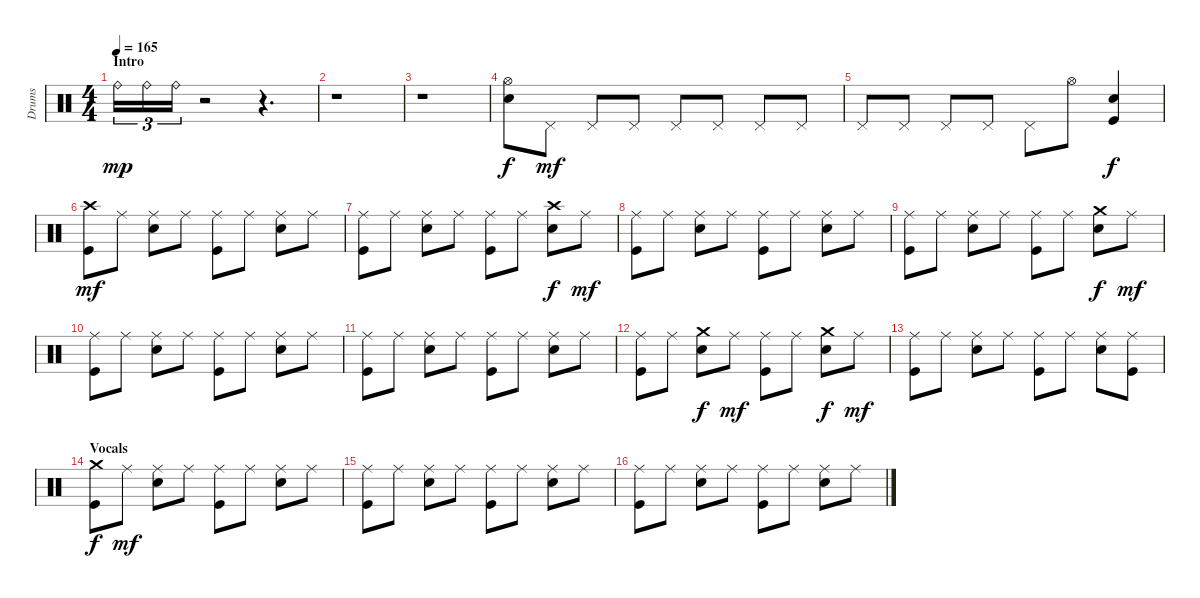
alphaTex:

\track ("Drums" "Drums") {instrument percussion}
\staff {score}
\articulation defaults
\ts (4 4)
\section ("" "Intro")
\tempo 165
\clef neutral
\ks c "Ride (bell)".16{tu (3 2) dy mp} "Ride (bell)".16{tu (3 2)} "Ride (bell)".16{tu (3 2)}
r.2 r.4{d} |
r.1 |
r.1 |
("Hi-Hat (open)" "Electric Snare (hit)").8{dy f} "Pedal Hi-Hat (hit)".8{dy mf} "Pedal Hi-Hat (hit)".8 "Pedal Hi-Hat (hit)".8 "Pedal Hi-Hat (hit)".8 "Pedal Hi-Hat (hit)".8 "Pedal Hi-Hat (hit)".8 "Pedal Hi-Hat (hit)".8 |
"Pedal Hi-Hat (hit)".8 "Pedal Hi-Hat (hit)".8 "Pedal Hi-Hat (hit)".8 "Pedal Hi-Hat (hit)".8 "Pedal Hi-Hat (hit)".8 "Hi-Hat (open)".8 ("Kick (hit)" "Electric Snare (hit)").4{dy f} |
("Crash high (hit)" "Kick (hit)").8{dy mf} "Ride (middle)".8 ("Ride (middle)" "Electric Snare (hit)").8 "Ride (middle)".8 ("Ride (middle)" "Kick (hit)").8 "Ride (middle)".8 ("Ride (middle)" "Electric Snare (hit)").8 "Ride (middle)".8 |
("Ride (middle)" "Kick (hit)").8 "Ride (middle)".8 ("Ride (middle)" "Electric Snare (hit)").8 "Ride (middle)".8 ("Ride (middle)" "Kick (hit)").8 "Ride (middle)".8 ("Crash high (hit)" "Electric Snare (hit)").8{dy f} "Ride (middle)".8{dy mf} |
("Ride (middle)" "Kick (hit)").8 "Ride (middle)".8 ("Ride (middle)" "Electric Snare (hit)").8 "Ride (middle)".8 ("Ride (middle)" "Kick (hit)").8 "Ride (middle)".8 ("Ride (middle)" "Electric Snare (hit)").8 "Ride (middle)".8 |
("Ride (middle)" "Kick (hit)").8 "Ride (middle)".8 ("Ride (middle)" "Electric Snare (hit)").8 "Ride (middle)".8 ("Ride (middle)" "Kick (hit)").8 "Ride (middle)".8 ("Crash medium (hit)" "Electric Snare (hit)").8{dy f} "Ride (middle)".8{dy mf} |
("Ride (middle)" "Kick (hit)").8 "Ride (middle)".8 ("Ride (middle)" "Electric Snare (hit)").8 "Ride (middle)".8 ("Ride (middle)" "Kick (hit)").8 "Ride (middle)".8 ("Ride (middle)" "Electric Snare (hit)").8 "Ride (middle)".8 |
("Ride (middle)" "Kick (hit)").8 "Ride (middle)".8 ("Ride (middle)" "Electric Snare (hit)").8 "Ride (middle)".8 ("Ride (middle)" "Kick (hit)").8 "Ride (middle)".8 ("Ride (middle)" "Electric Snare (hit)").8 "Ride (middle)".8 |
("Ride (middle)" "Kick (hit)").8 "Ride (middle)".8 ("Crash medium (hit)" "Electric Snare (hit)").8{dy f} "Ride (middle)".8{dy mf} ("Ride (middle)" "Kick (hit)").8 "Ride (middle)".8 ("Crash medium (hit)" "Electric Snare (hit)").8{dy f} "Ride (middle)".8{dy mf} |
("Ride (middle)" "Kick (hit)").8 "Ride (middle)".8 ("Ride (middle)" "Electric Snare (hit)").8 "Ride (middle)".8 ("Ride (middle)" "Kick (hit)").8 "Ride (middle)".8 ("Ride (middle)" "Electric Snare (hit)").8 ("Ride (middle)" "Kick (hit)").8 |
\section ("" "Vocals")
("Crash medium (hit)" "Kick (hit)").8{dy f} "Ride (middle)".8{dy mf} ("Ride (middle)" "Electric Snare (hit)").8 "Ride (middle)".8 ("Ride (middle)" "Kick (hit)").8 "Ride (middle)".8 ("Ride (middle)" "Electric Snare (hit)").8 "Ride (middle)".8 |
("Ride (middle)" "Kick (hit)").8 "Ride (middle)".8 ("Ride (middle)" "Electric Snare (hit)").8 "Ride (middle)".8 ("Ride (middle)" "Kick (hit)").8 "Ride (middle)".8 ("Ride (middle)" "Electric Snare (hit)").8 "Ride (middle)".8 |
("Ride (middle)" "Kick (hit)").8 "Ride (middle)".8 ("Ride (middle)" "Electric Snare (hit)").8 "Ride (middle)".8 ("Ride (middle)" "Kick (hit)").8 "Ride (middle)".8 ("Ride (middle)" "Electric Snare (hit)").8 "Ride (middle)".8
